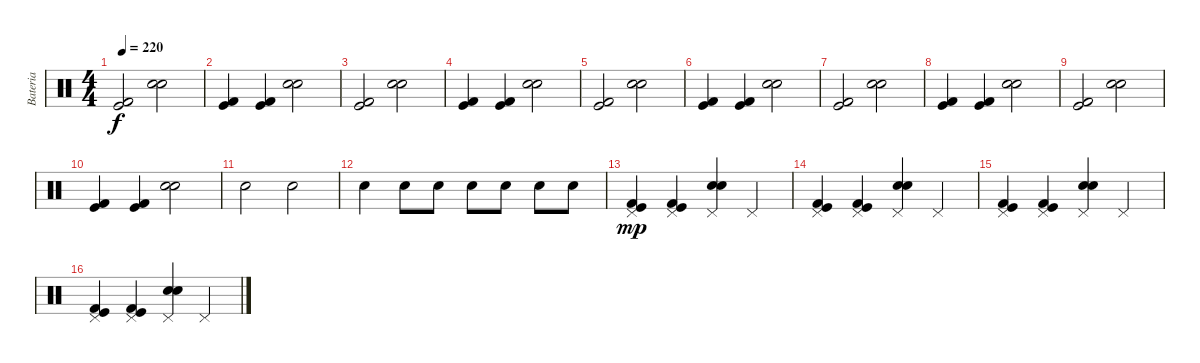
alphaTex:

\track ("Bateria" "Bateria") {instrument percussion}
\staff {score}
\articulation defaults
\ts (4 4)
\tempo 220
\clef neutral
\ks c
("Kick (hit)" "Kick (hit) 2").2{dy f} ("Electric Snare (hit)" "Snare (hit) 2").2 |
("Kick (hit) 2" "Kick (hit)").4 ("Kick (hit)" "Kick (hit) 2").4 ("Electric Snare (hit)" "Snare (hit) 2").2 |
("Kick (hit)" "Kick (hit) 2").2 ("Electric Snare (hit)" "Snare (hit) 2").2 |
("Kick (hit) 2" "Kick (hit)").4 ("Kick (hit)" "Kick (hit) 2").4 ("Electric Snare (hit)" "Snare (hit) 2").2 |
("Kick (hit)" "Kick (hit) 2").2 ("Electric Snare (hit)" "Snare (hit) 2").2 |
("Kick (hit) 2" "Kick (hit)").4 ("Kick (hit)" "Kick (hit) 2").4 ("Electric Snare (hit)" "Snare (hit) 2").2 |
("Kick (hit)" "Kick (hit) 2").2 ("Electric Snare (hit)" "Snare (hit) 2").2 |
("Kick (hit) 2" "Kick (hit)").4 ("Kick (hit)" "Kick (hit) 2").4 ("Electric Snare (hit)" "Snare (hit) 2").2 |
("Kick (hit)" "Kick (hit) 2").2 ("Electric Snare (hit)" "Snare (hit) 2").2 |
("Kick (hit) 2" "Kick (hit)").4 ("Kick (hit)" "Kick (hit) 2").4 ("Electric Snare (hit)" "Snare (hit) 2").2 |
"Electric Snare (hit)".2 "Electric Snare (hit)".2 |
"Electric Snare (hit)".4 "Electric Snare (hit)".8 "Electric Snare (hit)".8 "Electric Snare (hit)".8 "Electric Snare (hit)".8 "Electric Snare (hit)".8 "Electric Snare (hit)".8 |
("Pedal Hi-Hat (hit)" "Kick (hit) 2" "Kick (hit)").4{dy mp} ("Pedal Hi-Hat (hit)" "Kick (hit) 2" "Kick (hit)").4 ("Pedal Hi-Hat (hit)" "Snare (hit) 2" "Electric Snare (hit)").4 "Pedal Hi-Hat (hit)".4 |
("Pedal Hi-Hat (hit)" "Kick (hit) 2" "Kick (hit)").4 ("Pedal Hi-Hat (hit)" "Kick (hit) 2" "Kick (hit)").4 ("Pedal Hi-Hat (hit)" "Snare (hit) 2" "Electric Snare (hit)").4 "Pedal Hi-Hat (hit)".4 |
("Pedal Hi-Hat (hit)" "Kick (hit) 2" "Kick (hit)").4 ("Pedal Hi-Hat (hit)" "Kick (hit) 2" "Kick (hit)").4 ("Pedal Hi-Hat (hit)" "Snare (hit) 2" "Electric Snare (hit)").4 "Pedal Hi-Hat (hit)".4 |
("Pedal Hi-Hat (hit)" "Kick (hit) 2" "Kick (hit)").4 ("Pedal Hi-Hat (hit)" "Kick (hit) 2" "Kick (hit)").4 ("Pedal Hi-Hat (hit)" "Snare (hit) 2" "Electric Snare (hit)").4 "Pedal Hi-Hat (hit)".4
